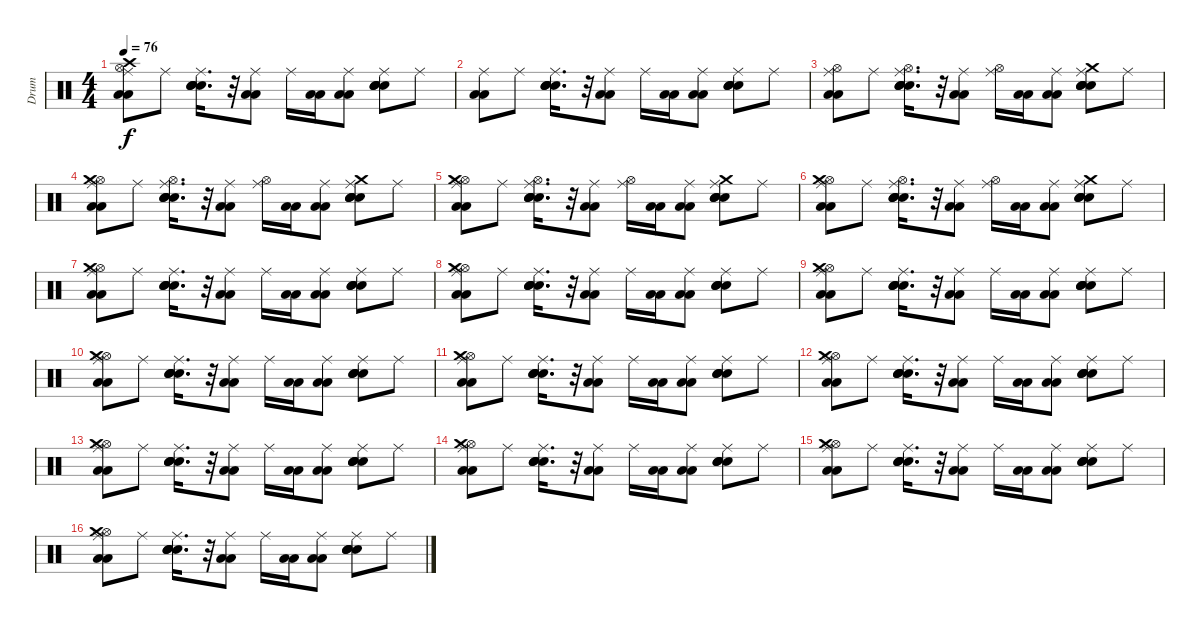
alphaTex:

\track ("Drum" "Drum") {instrument percussion}
\staff {score}
\articulation defaults
\ts (4 4)
\tempo 76
\clef neutral
\ks c
("Hi-Hat (open)" "Low Floor Tom (hit)" "Low Floor Tom (hit)" "Ride (middle)" "Crash high (hit)").8{dy f volume 8} "Ride (middle)".8 ("Electric Snare (hit)" "Electric Snare (hit)" "Snare (hit) 2" "Ride (middle)" "Snare (hit) 2").16{d} r.32 ("Low Floor Tom (hit)" "Low Floor Tom (hit)" "Ride (middle)").8 "Ride (middle)".16 ("Low Floor Tom (hit)" "Low Floor Tom (hit)").16 ("Low Floor Tom (hit)" "Low Floor Tom (hit)" "Ride (middle)").8 ("Electric Snare (hit)" "Electric Snare (hit)" "Snare (hit) 2" "Ride (middle)" "Snare (hit) 2").8 "Ride (middle)".8 |
("Low Floor Tom (hit)" "Low Floor Tom (hit)" "Ride (middle)").8 "Ride (middle)".8 ("Electric Snare (hit)" "Electric Snare (hit)" "Snare (hit) 2" "Ride (middle)" "Snare (hit) 2").16{d} r.32 ("Low Floor Tom (hit)" "Low Floor Tom (hit)" "Ride (middle)").8 "Ride (middle)".16 ("Low Floor Tom (hit)" "Low Floor Tom (hit)").16 ("Low Floor Tom (hit)" "Low Floor Tom (hit)" "Ride (middle)").8 ("Electric Snare (hit)" "Electric Snare (hit)" "Snare (hit) 2" "Ride (middle)" "Snare (hit) 2").8 "Ride (middle)".8 |
("Hi-Hat (open)" "Low Floor Tom (hit)" "Low Floor Tom (hit)" "Ride (middle)").8 "Ride (middle)".8 ("Electric Snare (hit)" "Electric Snare (hit)" "Snare (hit) 2" "Ride (middle)" "Snare (hit) 2" "Hi-Hat (open)").16{d} r.32 ("Low Floor Tom (hit)" "Low Floor Tom (hit)" "Ride (middle)").8 ("Hi-Hat (open)" "Ride (middle)").16 ("Low Floor Tom (hit)" "Low Floor Tom (hit)").16 ("Low Floor Tom (hit)" "Low Floor Tom (hit)" "Ride (middle)").8 ("Electric Snare (hit)" "Electric Snare (hit)" "Snare (hit) 2" "Ride (middle)" "Snare (hit) 2" "Crash medium (hit)").8 "Ride (middle)".8 |
("Hi-Hat (open)" "Low Floor Tom (hit)" "Low Floor Tom (hit)" "Ride (middle)" "Crash medium (hit)").8 "Ride (middle)".8 ("Electric Snare (hit)" "Electric Snare (hit)" "Snare (hit) 2" "Ride (middle)" "Snare (hit) 2" "Hi-Hat (open)").16{d} r.32 ("Low Floor Tom (hit)" "Low Floor Tom (hit)" "Ride (middle)").8 ("Hi-Hat (open)" "Ride (middle)").16 ("Low Floor Tom (hit)" "Low Floor Tom (hit)").16 ("Low Floor Tom (hit)" "Low Floor Tom (hit)" "Ride (middle)").8 ("Electric Snare (hit)" "Electric Snare (hit)" "Snare (hit) 2" "Ride (middle)" "Snare (hit) 2" "Crash medium (hit)").8 "Ride (middle)".8 |
("Hi-Hat (open)" "Low Floor Tom (hit)" "Low Floor Tom (hit)" "Ride (middle)" "Crash medium (hit)").8 "Ride (middle)".8 ("Electric Snare (hit)" "Electric Snare (hit)" "Snare (hit) 2" "Ride (middle)" "Snare (hit) 2" "Hi-Hat (open)").16{d} r.32 ("Low Floor Tom (hit)" "Low Floor Tom (hit)" "Ride (middle)").8 ("Hi-Hat (open)" "Ride (middle)").16 ("Low Floor Tom (hit)" "Low Floor Tom (hit)").16 ("Low Floor Tom (hit)" "Low Floor Tom (hit)" "Ride (middle)").8 ("Electric Snare (hit)" "Electric Snare (hit)" "Snare (hit) 2" "Ride (middle)" "Snare (hit) 2" "Crash medium (hit)").8 "Ride (middle)".8 |
("Hi-Hat (open)" "Low Floor Tom (hit)" "Low Floor Tom (hit)" "Ride (middle)" "Crash medium (hit)").8 "Ride (middle)".8 ("Electric Snare (hit)" "Electric Snare (hit)" "Snare (hit) 2" "Ride (middle)" "Snare (hit) 2" "Hi-Hat (open)").16{d} r.32 ("Low Floor Tom (hit)" "Low Floor Tom (hit)" "Ride (middle)").8 ("Hi-Hat (open)" "Ride (middle)").16 ("Low Floor Tom (hit)" "Low Floor Tom (hit)").16 ("Low Floor Tom (hit)" "Low Floor Tom (hit)" "Ride (middle)").8 ("Electric Snare (hit)" "Electric Snare (hit)" "Snare (hit) 2" "Ride (middle)" "Snare (hit) 2" "Crash medium (hit)").8 "Ride (middle)".8 |
("Hi-Hat (open)" "Low Floor Tom (hit)" "Low Floor Tom (hit)" "Ride (middle)" "Crash medium (hit)").8 "Ride (middle)".8 ("Electric Snare (hit)" "Electric Snare (hit)" "Snare (hit) 2" "Ride (middle)" "Snare (hit) 2").16{d} r.32 ("Low Floor Tom (hit)" "Low Floor Tom (hit)" "Ride (middle)").8 "Ride (middle)".16 ("Low Floor Tom (hit)" "Low Floor Tom (hit)").16 ("Low Floor Tom (hit)" "Low Floor Tom (hit)" "Ride (middle)").8 ("Electric Snare (hit)" "Electric Snare (hit)" "Snare (hit) 2" "Ride (middle)" "Snare (hit) 2").8 "Ride (middle)".8 |
("Hi-Hat (open)" "Low Floor Tom (hit)" "Low Floor Tom (hit)" "Ride (middle)" "Crash medium (hit)").8 "Ride (middle)".8 ("Electric Snare (hit)" "Electric Snare (hit)" "Snare (hit) 2" "Ride (middle)" "Snare (hit) 2").16{d} r.32 ("Low Floor Tom (hit)" "Low Floor Tom (hit)" "Ride (middle)").8 "Ride (middle)".16 ("Low Floor Tom (hit)" "Low Floor Tom (hit)").16 ("Low Floor Tom (hit)" "Low Floor Tom (hit)" "Ride (middle)").8 ("Electric Snare (hit)" "Electric Snare (hit)" "Snare (hit) 2" "Ride (middle)" "Snare (hit) 2").8 "Ride (middle)".8 |
("Hi-Hat (open)" "Low Floor Tom (hit)" "Low Floor Tom (hit)" "Ride (middle)" "Crash medium (hit)").8 "Ride (middle)".8 ("Electric Snare (hit)" "Electric Snare (hit)" "Snare (hit) 2" "Ride (middle)" "Snare (hit) 2").16{d} r.32 ("Low Floor Tom (hit)" "Low Floor Tom (hit)" "Ride (middle)").8 "Ride (middle)".16 ("Low Floor Tom (hit)" "Low Floor Tom (hit)").16 ("Low Floor Tom (hit)" "Low Floor Tom (hit)" "Ride (middle)").8 ("Electric Snare (hit)" "Electric Snare (hit)" "Snare (hit) 2" "Ride (middle)" "Snare (hit) 2").8 "Ride (middle)".8 |
("Hi-Hat (open)" "Low Floor Tom (hit)" "Low Floor Tom (hit)" "Ride (middle)" "Crash medium (hit)").8 "Ride (middle)".8 ("Electric Snare (hit)" "Electric Snare (hit)" "Snare (hit) 2" "Ride (middle)" "Snare (hit) 2").16{d} r.32 ("Low Floor Tom (hit)" "Low Floor Tom (hit)" "Ride (middle)").8 "Ride (middle)".16 ("Low Floor Tom (hit)" "Low Floor Tom (hit)").16 ("Low Floor Tom (hit)" "Low Floor Tom (hit)" "Ride (middle)").8 ("Electric Snare (hit)" "Electric Snare (hit)" "Snare (hit) 2" "Ride (middle)" "Snare (hit) 2").8 "Ride (middle)".8 |
("Hi-Hat (open)" "Low Floor Tom (hit)" "Low Floor Tom (hit)" "Ride (middle)" "Crash medium (hit)").8 "Ride (middle)".8 ("Electric Snare (hit)" "Electric Snare (hit)" "Snare (hit) 2" "Ride (middle)" "Snare (hit) 2").16{d} r.32 ("Low Floor Tom (hit)" "Low Floor Tom (hit)" "Ride (middle)").8 "Ride (middle)".16 ("Low Floor Tom (hit)" "Low Floor Tom (hit)").16 ("Low Floor Tom (hit)" "Low Floor Tom (hit)" "Ride (middle)").8 ("Electric Snare (hit)" "Electric Snare (hit)" "Snare (hit) 2" "Ride (middle)" "Snare (hit) 2").8 "Ride (middle)".8 |
("Hi-Hat (open)" "Low Floor Tom (hit)" "Low Floor Tom (hit)" "Ride (middle)" "Crash medium (hit)").8 "Ride (middle)".8 ("Electric Snare (hit)" "Electric Snare (hit)" "Snare (hit) 2" "Ride (middle)" "Snare (hit) 2").16{d} r.32 ("Low Floor Tom (hit)" "Low Floor Tom (hit)" "Ride (middle)").8 "Ride (middle)".16 ("Low Floor Tom (hit)" "Low Floor Tom (hit)").16 ("Low Floor Tom (hit)" "Low Floor Tom (hit)" "Ride (middle)").8 ("Electric Snare (hit)" "Electric Snare (hit)" "Snare (hit) 2" "Ride (middle)" "Snare (hit) 2").8 "Ride (middle)".8 |
("Hi-Hat (open)" "Low Floor Tom (hit)" "Low Floor Tom (hit)" "Ride (middle)" "Crash medium (hit)").8 "Ride (middle)".8 ("Electric Snare (hit)" "Electric Snare (hit)" "Snare (hit) 2" "Ride (middle)" "Snare (hit) 2").16{d} r.32 ("Low Floor Tom (hit)" "Low Floor Tom (hit)" "Ride (middle)").8 "Ride (middle)".16 ("Low Floor Tom (hit)" "Low Floor Tom (hit)").16 ("Low Floor Tom (hit)" "Low Floor Tom (hit)" "Ride (middle)").8 ("Electric Snare (hit)" "Electric Snare (hit)" "Snare (hit) 2" "Ride (middle)" "Snare (hit) 2").8 "Ride (middle)".8 |
("Hi-Hat (open)" "Low Floor Tom (hit)" "Low Floor Tom (hit)" "Ride (middle)" "Crash medium (hit)").8 "Ride (middle)".8 ("Electric Snare (hit)" "Electric Snare (hit)" "Snare (hit) 2" "Ride (middle)" "Snare (hit) 2").16{d} r.32 ("Low Floor Tom (hit)" "Low Floor Tom (hit)" "Ride (middle)").8 "Ride (middle)".16 ("Low Floor Tom (hit)" "Low Floor Tom (hit)").16 ("Low Floor Tom (hit)" "Low Floor Tom (hit)" "Ride (middle)").8 ("Electric Snare (hit)" "Electric Snare (hit)" "Snare (hit) 2" "Ride (middle)" "Snare (hit) 2").8 "Ride (middle)".8 |
("Hi-Hat (open)" "Low Floor Tom (hit)" "Low Floor Tom (hit)" "Ride (middle)" "Crash medium (hit)").8 "Ride (middle)".8 ("Electric Snare (hit)" "Electric Snare (hit)" "Snare (hit) 2" "Ride (middle)" "Snare (hit) 2").16{d} r.32 ("Low Floor Tom (hit)" "Low Floor Tom (hit)" "Ride (middle)").8 "Ride (middle)".16 ("Low Floor Tom (hit)" "Low Floor Tom (hit)").16 ("Low Floor Tom (hit)" "Low Floor Tom (hit)" "Ride (middle)").8 ("Electric Snare (hit)" "Electric Snare (hit)" "Snare (hit) 2" "Ride (middle)" "Snare (hit) 2").8 "Ride (middle)".8 |
("Hi-Hat (open)" "Low Floor Tom (hit)" "Low Floor Tom (hit)" "Ride (middle)" "Crash medium (hit)").8 "Ride (middle)".8 ("Electric Snare (hit)" "Electric Snare (hit)" "Snare (hit) 2" "Ride (middle)" "Snare (hit) 2").16{d} r.32 ("Low Floor Tom (hit)" "Low Floor Tom (hit)" "Ride (middle)").8 "Ride (middle)".16 ("Low Floor Tom (hit)" "Low Floor Tom (hit)").16 ("Low Floor Tom (hit)" "Low Floor Tom (hit)" "Ride (middle)").8 ("Electric Snare (hit)" "Electric Snare (hit)" "Snare (hit) 2" "Ride (middle)" "Snare (hit) 2").8 "Ride (middle)".8
